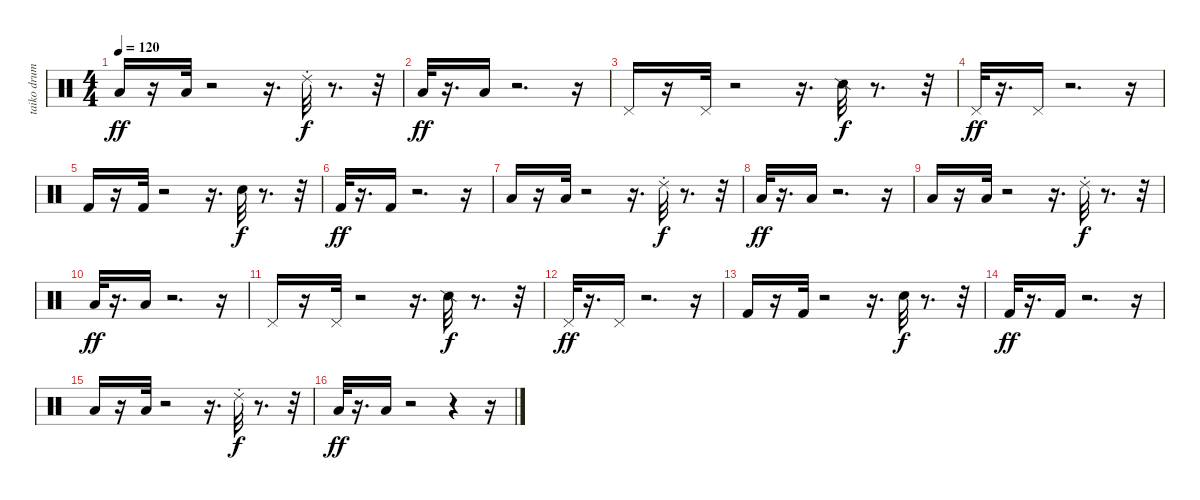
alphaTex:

\track ("taiko drum" "taiko drum") {instrument percussion}
\staff {score}
\articulation defaults
\ts (4 4)
\tempo 120
\clef neutral
\ks c "Low Floor Tom (hit)".16{dy ff}
r.16 "Low Floor Tom (hit)".32 r.2 r.16{d} "Ride (choke) 2".32{dy f} r.8{d} r.32 |
"Low Floor Tom (hit)".32{dy ff} r.16{d} "Low Floor Tom (hit)".16 r.2{d} r.16 |
"Pedal Hi-Hat (hit)".16 r.16 "Pedal Hi-Hat (hit)".32 r.2 r.16{d} "Snare (side stick) 2".32{dy f} r.8{d} r.32 |
"Pedal Hi-Hat (hit)".32{dy ff} r.16{d} "Pedal Hi-Hat (hit)".16 r.2{d} r.16 |
"Kick (hit) 2".16 r.16 "Kick (hit) 2".32 r.2 r.16{d} "Snare (hit)".32{dy f} r.8{d} r.32 |
"Kick (hit) 2".32{dy ff} r.16{d} "Kick (hit) 2".16 r.2{d} r.16 |
"Low Floor Tom (hit)".16 r.16 "Low Floor Tom (hit)".32 r.2 r.16{d} "Ride (choke) 2".32{dy f} r.8{d} r.32 |
"Low Floor Tom (hit)".32{dy ff} r.16{d} "Low Floor Tom (hit)".16 r.2{d} r.16 |
"Low Floor Tom (hit)".16 r.16 "Low Floor Tom (hit)".32 r.2 r.16{d} "Ride (choke) 2".32{dy f} r.8{d} r.32 |
"Low Floor Tom (hit)".32{dy ff} r.16{d} "Low Floor Tom (hit)".16 r.2{d} r.16 |
"Pedal Hi-Hat (hit)".16 r.16 "Pedal Hi-Hat (hit)".32 r.2 r.16{d} "Snare (side stick) 2".32{dy f} r.8{d} r.32 |
"Pedal Hi-Hat (hit)".32{dy ff} r.16{d} "Pedal Hi-Hat (hit)".16 r.2{d} r.16 |
"Kick (hit) 2".16 r.16 "Kick (hit) 2".32 r.2 r.16{d} "Snare (hit)".32{dy f} r.8{d} r.32 |
"Kick (hit) 2".32{dy ff} r.16{d} "Kick (hit) 2".16 r.2{d} r.16 |
"Low Floor Tom (hit)".16 r.16 "Low Floor Tom (hit)".32 r.2 r.16{d} "Ride (choke) 2".32{dy f} r.8{d} r.32 |
"Low Floor Tom (hit)".32{dy ff} r.16{d} "Low Floor Tom (hit)".16 r.2 r.4 r.16
